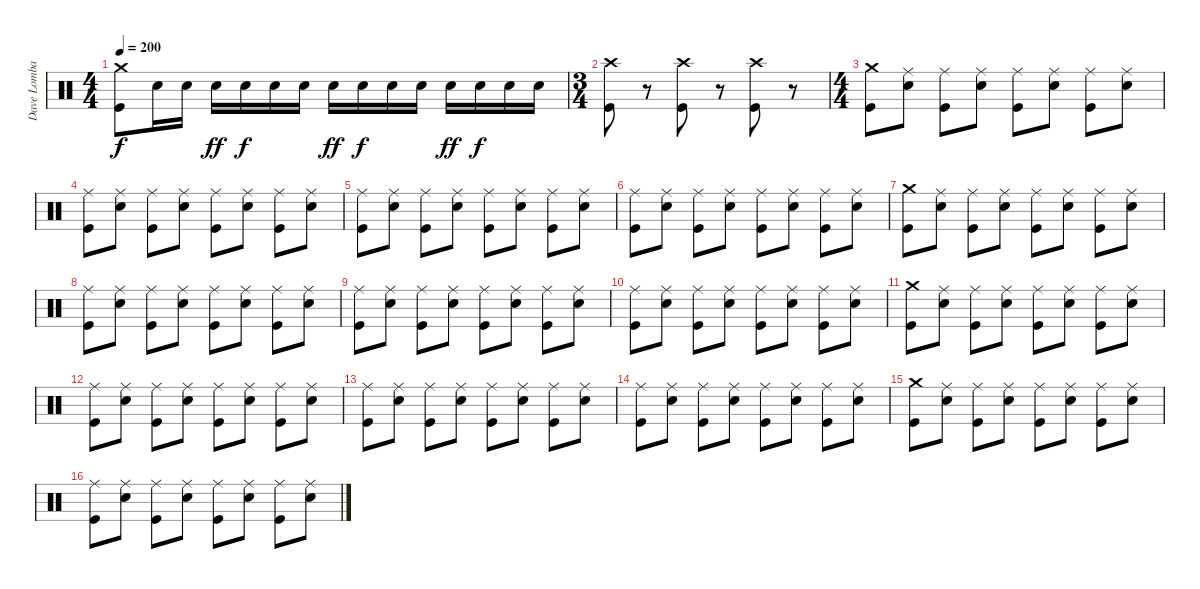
\track ("Dave Lombardo" "Dave Lomba") {instrument percussion}
\staff {score}
\articulation defaults
\ts (4 4)
\tempo 200
\clef neutral
\ks c
("Crash medium (hit)" "Kick (hit)").8{dy f} "Snare (hit) 2".16 "Snare (hit) 2".16 "Snare (hit) 2".16{dy ff} "Snare (hit) 2".16{dy f} "Snare (hit) 2".16 "Snare (hit) 2".16 "Snare (hit) 2".16{dy ff} "Snare (hit) 2".16{dy f} "Snare (hit) 2".16 "Snare (hit) 2".16 "Snare (hit) 2".16{dy ff} "Snare (hit) 2".16{dy f} "Snare (hit) 2".16 "Snare (hit) 2".16 |
\ts (3 4)
("Crash high (hit)" "Kick (hit)").8 r.8{volume 0} ("Crash high (hit)" "Kick (hit)").8{volume 16} r.8{volume 0} ("Crash high (hit)" "Kick (hit)").8{volume 16} r.8{volume 0} |
\ts (4 4)
("Crash medium (hit)" "Kick (hit)").8{volume 16} ("Ride (middle)" "Snare (hit) 2").8 ("Ride (middle)" "Kick (hit)").8 ("Ride (middle)" "Snare (hit) 2").8 ("Ride (middle)" "Kick (hit)").8 ("Ride (middle)" "Snare (hit) 2").8 ("Ride (middle)" "Kick (hit)").8 ("Ride (middle)" "Snare (hit) 2").8 |
("Ride (middle)" "Kick (hit)").8 ("Ride (middle)" "Snare (hit) 2").8 ("Ride (middle)" "Kick (hit)").8 ("Ride (middle)" "Snare (hit) 2").8 ("Ride (middle)" "Kick (hit)").8 ("Ride (middle)" "Snare (hit) 2").8 ("Ride (middle)" "Kick (hit)").8 ("Ride (middle)" "Snare (hit) 2").8 |
("Ride (middle)" "Kick (hit)").8 ("Ride (middle)" "Snare (hit) 2").8 ("Ride (middle)" "Kick (hit)").8 ("Ride (middle)" "Snare (hit) 2").8 ("Ride (middle)" "Kick (hit)").8 ("Ride (middle)" "Snare (hit) 2").8 ("Ride (middle)" "Kick (hit)").8 ("Ride (middle)" "Snare (hit) 2").8 |
("Ride (middle)" "Kick (hit)").8 ("Ride (middle)" "Snare (hit) 2").8 ("Ride (middle)" "Kick (hit)").8 ("Ride (middle)" "Snare (hit) 2").8 ("Ride (middle)" "Kick (hit)").8 ("Ride (middle)" "Snare (hit) 2").8 ("Ride (middle)" "Kick (hit)").8 ("Ride (middle)" "Snare (hit) 2").8 |
("Crash medium (hit)" "Kick (hit)").8 ("Ride (middle)" "Snare (hit) 2").8 ("Ride (middle)" "Kick (hit)").8 ("Ride (middle)" "Snare (hit) 2").8 ("Ride (middle)" "Kick (hit)").8 ("Ride (middle)" "Snare (hit) 2").8 ("Ride (middle)" "Kick (hit)").8 ("Ride (middle)" "Snare (hit) 2").8 |
("Ride (middle)" "Kick (hit)").8 ("Ride (middle)" "Snare (hit) 2").8 ("Ride (middle)" "Kick (hit)").8 ("Ride (middle)" "Snare (hit) 2").8 ("Ride (middle)" "Kick (hit)").8 ("Ride (middle)" "Snare (hit) 2").8 ("Ride (middle)" "Kick (hit)").8 ("Ride (middle)" "Snare (hit) 2").8 |
("Ride (middle)" "Kick (hit)").8 ("Ride (middle)" "Snare (hit) 2").8 ("Ride (middle)" "Kick (hit)").8 ("Ride (middle)" "Snare (hit) 2").8 ("Ride (middle)" "Kick (hit)").8 ("Ride (middle)" "Snare (hit) 2").8 ("Ride (middle)" "Kick (hit)").8 ("Ride (middle)" "Snare (hit) 2").8 |
("Ride (middle)" "Kick (hit)").8 ("Ride (middle)" "Snare (hit) 2").8 ("Ride (middle)" "Kick (hit)").8 ("Ride (middle)" "Snare (hit) 2").8 ("Ride (middle)" "Kick (hit)").8 ("Ride (middle)" "Snare (hit) 2").8 ("Ride (middle)" "Kick (hit)").8 ("Ride (middle)" "Snare (hit) 2").8 |
("Crash medium (hit)" "Kick (hit)").8 ("Ride (middle)" "Snare (hit) 2").8 ("Ride (middle)" "Kick (hit)").8 ("Ride (middle)" "Snare (hit) 2").8 ("Ride (middle)" "Kick (hit)").8 ("Ride (middle)" "Snare (hit) 2").8 ("Ride (middle)" "Kick (hit)").8 ("Ride (middle)" "Snare (hit) 2").8 |
("Ride (middle)" "Kick (hit)").8 ("Ride (middle)" "Snare (hit) 2").8 ("Ride (middle)" "Kick (hit)").8 ("Ride (middle)" "Snare (hit) 2").8 ("Ride (middle)" "Kick (hit)").8 ("Ride (middle)" "Snare (hit) 2").8 ("Ride (middle)" "Kick (hit)").8 ("Ride (middle)" "Snare (hit) 2").8 |
("Ride (middle)" "Kick (hit)").8 ("Ride (middle)" "Snare (hit) 2").8 ("Ride (middle)" "Kick (hit)").8 ("Ride (middle)" "Snare (hit) 2").8 ("Ride (middle)" "Kick (hit)").8 ("Ride (middle)" "Snare (hit) 2").8 ("Ride (middle)" "Kick (hit)").8 ("Ride (middle)" "Snare (hit) 2").8 |
("Ride (middle)" "Kick (hit)").8 ("Ride (middle)" "Snare (hit) 2").8 ("Ride (middle)" "Kick (hit)").8 ("Ride (middle)" "Snare (hit) 2").8 ("Ride (middle)" "Kick (hit)").8 ("Ride (middle)" "Snare (hit) 2").8 ("Ride (middle)" "Kick (hit)").8 ("Ride (middle)" "Snare (hit) 2").8 |
("Crash medium (hit)" "Kick (hit)").8 ("Ride (middle)" "Snare (hit) 2").8 ("Ride (middle)" "Kick (hit)").8 ("Ride (middle)" "Snare (hit) 2").8 ("Ride (middle)" "Kick (hit)").8 ("Ride (middle)" "Snare (hit) 2").8 ("Ride (middle)" "Kick (hit)").8 ("Ride (middle)" "Snare (hit) 2").8 |
("Ride (middle)" "Kick (hit)").8 ("Ride (middle)" "Snare (hit) 2").8 ("Ride (middle)" "Kick (hit)").8 ("Ride (middle)" "Snare (hit) 2").8 ("Ride (middle)" "Kick (hit)").8 ("Ride (middle)" "Snare (hit) 2").8 ("Ride (middle)" "Kick (hit)").8 ("Ride (middle)" "Snare (hit) 2").8
